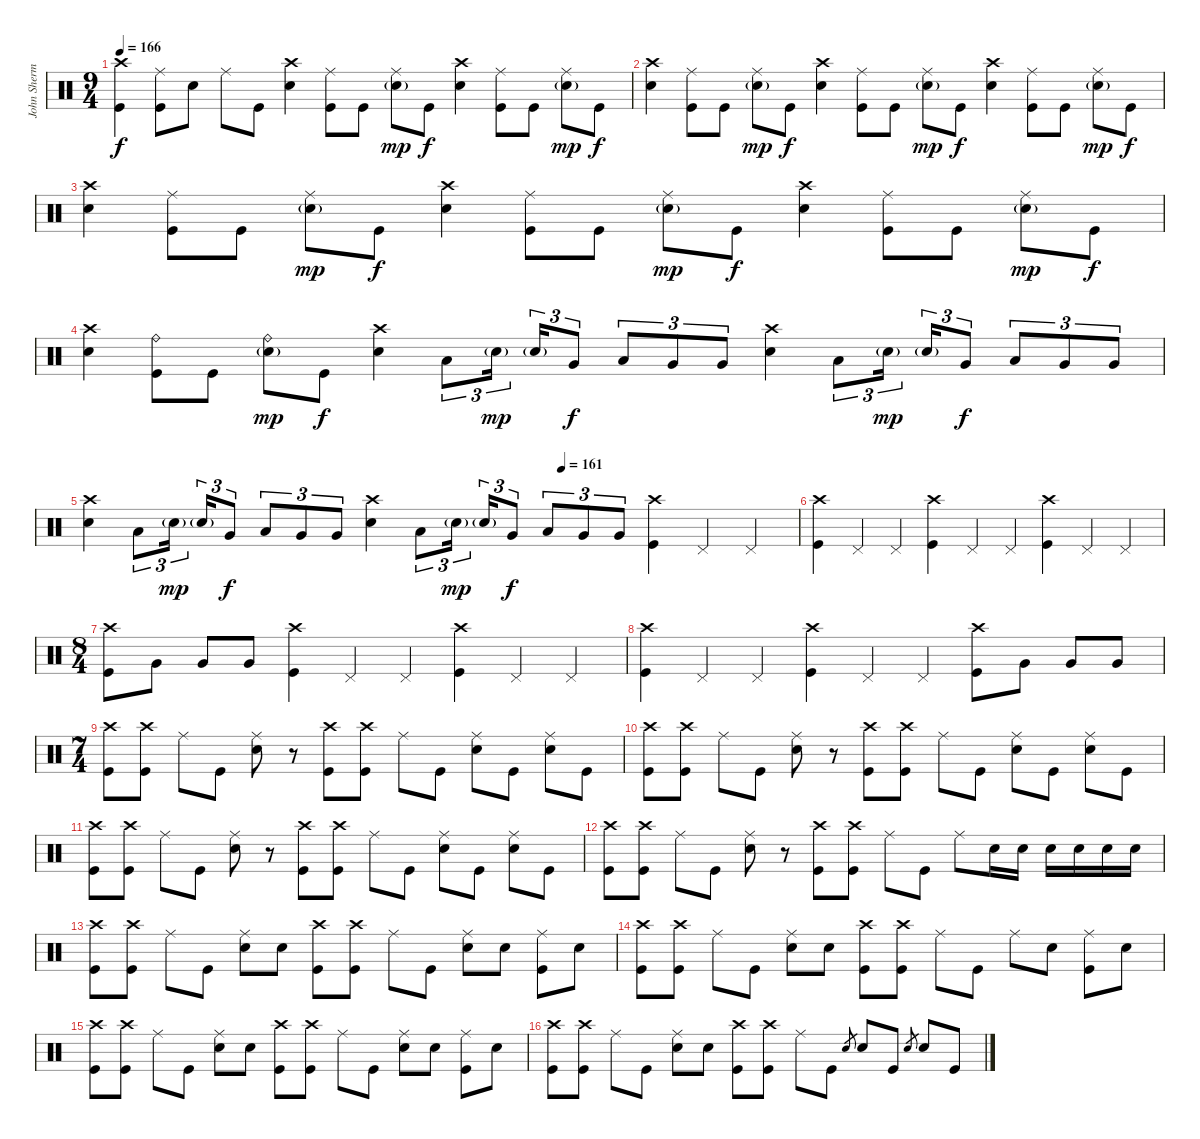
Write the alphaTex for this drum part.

\track ("John Sherman" "John Sherm") {instrument percussion}
\staff {score}
\articulation defaults
\ts (9 4)
\tempo 166
\clef neutral
\ks c
("Crash high (hit)" "Kick (hit)").4{dy f} ("Ride (middle)" "Kick (hit)").8 "Electric Snare (hit)".8 "Ride (middle)".8 "Kick (hit)".8 ("Crash high (hit)" "Electric Snare (hit)").4 ("Ride (middle)" "Kick (hit)").8 "Kick (hit)".8 ("Ride (middle)" "Electric Snare (hit)"{g}).8{dy mp} "Kick (hit)".8{dy f} ("Crash high (hit)" "Electric Snare (hit)").4 ("Ride (middle)" "Kick (hit)").8 "Kick (hit)".8 ("Ride (middle)" "Electric Snare (hit)"{g}).8{dy mp} "Kick (hit)".8{dy f} |
("Crash high (hit)" "Electric Snare (hit)").4 ("Ride (middle)" "Kick (hit)").8 "Kick (hit)".8 ("Ride (middle)" "Electric Snare (hit)"{g}).8{dy mp} "Kick (hit)".8{dy f} ("Crash high (hit)" "Electric Snare (hit)").4 ("Ride (middle)" "Kick (hit)").8 "Kick (hit)".8 ("Ride (middle)" "Electric Snare (hit)"{g}).8{dy mp} "Kick (hit)".8{dy f} ("Crash high (hit)" "Electric Snare (hit)").4 ("Ride (middle)" "Kick (hit)").8 "Kick (hit)".8 ("Ride (middle)" "Electric Snare (hit)"{g}).8{dy mp} "Kick (hit)".8{dy f} |
("Crash high (hit)" "Electric Snare (hit)").4 ("Ride (middle)" "Kick (hit)").8 "Kick (hit)".8 ("Ride (middle)" "Electric Snare (hit)"{g}).8{dy mp} "Kick (hit)".8{dy f} ("Crash high (hit)" "Electric Snare (hit)").4 ("Ride (middle)" "Kick (hit)").8 "Kick (hit)".8 ("Ride (middle)" "Electric Snare (hit)"{g}).8{dy mp} "Kick (hit)".8{dy f} ("Crash high (hit)" "Electric Snare (hit)").4 ("Ride (middle)" "Kick (hit)").8 "Kick (hit)".8 ("Ride (middle)" "Electric Snare (hit)"{g}).8{dy mp} "Kick (hit)".8{dy f} |
("Crash high (hit)" "Electric Snare (hit)").4 ("Ride (bell)" "Kick (hit)").8 "Kick (hit)".8 ("Ride (bell)" "Electric Snare (hit)"{g}).8{dy mp} "Kick (hit)".8{dy f} ("Crash high (hit)" "Electric Snare (hit)").4 "Low Tom (hit)".8{tu (3 2)} "Electric Snare (hit)"{g}.16{tu (3 2) dy mp beam splitsecondary} "Electric Snare (hit)"{g}.16{tu (3 2)} "Very Low Tom (hit)".8{tu (3 2) dy f} "Low Tom (hit)".8{tu (3 2)} "Very Low Tom (hit)".8{tu (3 2)} "Very Low Tom (hit)".8{tu (3 2)} ("Crash high (hit)" "Electric Snare (hit)").4 "Low Tom (hit)".8{tu (3 2)} "Electric Snare (hit)"{g}.16{tu (3 2) dy mp beam splitsecondary} "Electric Snare (hit)"{g}.16{tu (3 2)} "Very Low Tom (hit)".8{tu (3 2) dy f} "Low Tom (hit)".8{tu (3 2)} "Very Low Tom (hit)".8{tu (3 2)} "Very Low Tom (hit)".8{tu (3 2)} |
\tempo (161 0.6666666666666666)
("Crash high (hit)" "Electric Snare (hit)").4 "Low Tom (hit)".8{tu (3 2)} "Electric Snare (hit)"{g}.16{tu (3 2) dy mp beam splitsecondary} "Electric Snare (hit)"{g}.16{tu (3 2)} "Very Low Tom (hit)".8{tu (3 2) dy f} "Low Tom (hit)".8{tu (3 2)} "Very Low Tom (hit)".8{tu (3 2)} "Very Low Tom (hit)".8{tu (3 2)} ("Crash high (hit)" "Electric Snare (hit)").4 "Low Tom (hit)".8{tu (3 2)} "Electric Snare (hit)"{g}.16{tu (3 2) dy mp beam splitsecondary} "Electric Snare (hit)"{g}.16{tu (3 2)} "Very Low Tom (hit)".8{tu (3 2) dy f} "Low Tom (hit)".8{tu (3 2)} "Very Low Tom (hit)".8{tu (3 2)} "Very Low Tom (hit)".8{tu (3 2)} ("Crash high (hit)" "Kick (hit)").4 "Pedal Hi-Hat (hit)".4 "Pedal Hi-Hat (hit)".4 |
("Crash high (hit)" "Kick (hit)").4 "Pedal Hi-Hat (hit)".4 "Pedal Hi-Hat (hit)".4 ("Crash high (hit)" "Kick (hit)").4 "Pedal Hi-Hat (hit)".4 "Pedal Hi-Hat (hit)".4 ("Crash high (hit)" "Kick (hit)").4 "Pedal Hi-Hat (hit)".4 "Pedal Hi-Hat (hit)".4 |
\ts (8 4)
("Crash high (hit)" "Kick (hit)").8 "Very Low Tom (hit)".8 "Very Low Tom (hit)".8 "Very Low Tom (hit)".8 ("Crash high (hit)" "Kick (hit)").4 "Pedal Hi-Hat (hit)".4 "Pedal Hi-Hat (hit)".4 ("Crash high (hit)" "Kick (hit)").4 "Pedal Hi-Hat (hit)".4 "Pedal Hi-Hat (hit)".4 |
("Crash high (hit)" "Kick (hit)").4 "Pedal Hi-Hat (hit)".4 "Pedal Hi-Hat (hit)".4 ("Crash high (hit)" "Kick (hit)").4 "Pedal Hi-Hat (hit)".4 "Pedal Hi-Hat (hit)".4 ("Crash high (hit)" "Kick (hit)").8 "Very Low Tom (hit)".8 "Very Low Tom (hit)".8 "Very Low Tom (hit)".8 |
\ts (7 4)
("Crash high (hit)" "Kick (hit)").8 ("Crash high (hit)" "Kick (hit)").8 "Ride (middle)".8 "Kick (hit)".8 ("Ride (middle)" "Electric Snare (hit)").8 r.8 ("Crash high (hit)" "Kick (hit)").8 ("Crash high (hit)" "Kick (hit)").8 "Ride (middle)".8 "Kick (hit)".8 ("Ride (middle)" "Electric Snare (hit)").8 "Kick (hit)".8 ("Ride (middle)" "Electric Snare (hit)").8 "Kick (hit)".8 |
("Crash high (hit)" "Kick (hit)").8 ("Crash high (hit)" "Kick (hit)").8 "Ride (middle)".8 "Kick (hit)".8 ("Ride (middle)" "Electric Snare (hit)").8 r.8 ("Crash high (hit)" "Kick (hit)").8 ("Crash high (hit)" "Kick (hit)").8 "Ride (middle)".8 "Kick (hit)".8 ("Ride (middle)" "Electric Snare (hit)").8 "Kick (hit)".8 ("Ride (middle)" "Electric Snare (hit)").8 "Kick (hit)".8 |
("Crash high (hit)" "Kick (hit)").8 ("Crash high (hit)" "Kick (hit)").8 "Ride (middle)".8 "Kick (hit)".8 ("Ride (middle)" "Electric Snare (hit)").8 r.8 ("Crash high (hit)" "Kick (hit)").8 ("Crash high (hit)" "Kick (hit)").8 "Ride (middle)".8 "Kick (hit)".8 ("Ride (middle)" "Electric Snare (hit)").8 "Kick (hit)".8 ("Ride (middle)" "Electric Snare (hit)").8 "Kick (hit)".8 |
("Crash high (hit)" "Kick (hit)").8 ("Crash high (hit)" "Kick (hit)").8 "Ride (middle)".8 "Kick (hit)".8 ("Ride (middle)" "Electric Snare (hit)").8 r.8 ("Crash high (hit)" "Kick (hit)").8 ("Crash high (hit)" "Kick (hit)").8 "Ride (middle)".8 "Kick (hit)".8 "Ride (middle)".8 "Electric Snare (hit)".16 "Electric Snare (hit)".16 "Electric Snare (hit)".16 "Electric Snare (hit)".16 "Electric Snare (hit)".16 "Electric Snare (hit)".16 |
("Crash high (hit)" "Kick (hit)").8 ("Crash high (hit)" "Kick (hit)").8 "Ride (middle)".8 "Kick (hit)".8 ("Ride (middle)" "Electric Snare (hit)").8 "Electric Snare (hit)".8 ("Crash high (hit)" "Kick (hit)").8 ("Crash high (hit)" "Kick (hit)").8 "Ride (middle)".8 "Kick (hit)".8 ("Ride (middle)" "Electric Snare (hit)").8 "Electric Snare (hit)".8 ("Ride (middle)" "Kick (hit)").8 "Electric Snare (hit)".8 |
("Crash high (hit)" "Kick (hit)").8 ("Crash high (hit)" "Kick (hit)").8 "Ride (middle)".8 "Kick (hit)".8 ("Ride (middle)" "Electric Snare (hit)").8 "Electric Snare (hit)".8 ("Crash high (hit)" "Kick (hit)").8 ("Crash high (hit)" "Kick (hit)").8 "Ride (middle)".8 "Kick (hit)".8 "Ride (middle)".8 "Electric Snare (hit)".8 ("Ride (middle)" "Kick (hit)").8 "Electric Snare (hit)".8 |
("Crash high (hit)" "Kick (hit)").8 ("Crash high (hit)" "Kick (hit)").8 "Ride (middle)".8 "Kick (hit)".8 ("Ride (middle)" "Electric Snare (hit)").8 "Electric Snare (hit)".8 ("Crash high (hit)" "Kick (hit)").8 ("Crash high (hit)" "Kick (hit)").8 "Ride (middle)".8 "Kick (hit)".8 ("Ride (middle)" "Electric Snare (hit)").8 "Electric Snare (hit)".8 ("Ride (middle)" "Kick (hit)").8 "Electric Snare (hit)".8 |
("Crash high (hit)" "Kick (hit)").8 ("Crash high (hit)" "Kick (hit)").8 "Ride (middle)".8 "Kick (hit)".8 ("Ride (middle)" "Electric Snare (hit)").8 "Electric Snare (hit)".8 ("Crash high (hit)" "Kick (hit)").8 ("Crash high (hit)" "Kick (hit)").8 "Ride (middle)".8 "Kick (hit)".8 "Electric Snare (hit)".8{gr} "Electric Snare (hit)".8 "Kick (hit)".8 "Electric Snare (hit)".8{gr} "Electric Snare (hit)".8 "Kick (hit)".8
